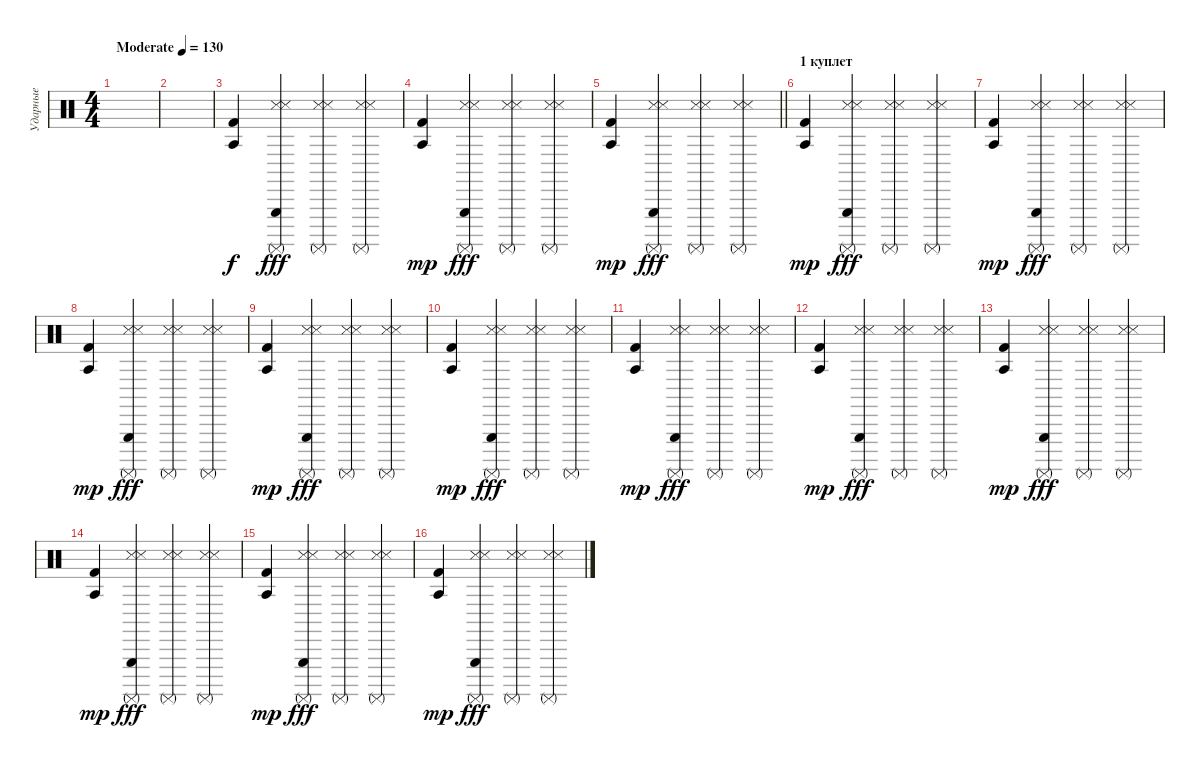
\track ("Ударные" "Ударные") {instrument percussion}
\staff {score}
\articulation defaults
\ts (4 4)
\tempo (130 "Moderate")
\clef neutral
\ks c
|
|
("Kick (hit) 2" "Agogo tow (hit)").4 ("Metronome (hit)" "Snare (side stick) 3" "Surdo (mute)" "Triangle (hit)").4{dy fff} ("Metronome (hit)" "Snare (side stick) 3" "Surdo (mute)").4 ("Metronome (hit)" "Snare (side stick) 3" "Surdo (mute)").4 |
("Kick (hit) 2" "Agogo tow (hit)").4{dy mp} ("Metronome (hit)" "Snare (side stick) 3" "Surdo (mute)" "Triangle (hit)").4{dy fff} ("Metronome (hit)" "Snare (side stick) 3" "Surdo (mute)").4 ("Metronome (hit)" "Snare (side stick) 3" "Surdo (mute)").4 |
\barLineRight lightlight
("Kick (hit) 2" "Agogo tow (hit)").4{dy mp} ("Metronome (hit)" "Snare (side stick) 3" "Surdo (mute)" "Triangle (hit)").4{dy fff} ("Metronome (hit)" "Snare (side stick) 3" "Surdo (mute)").4 ("Metronome (hit)" "Snare (side stick) 3" "Surdo (mute)").4 |
\section ("" "1 куплет")
("Kick (hit) 2" "Agogo tow (hit)").4{dy mp} ("Metronome (hit)" "Snare (side stick) 3" "Surdo (mute)" "Triangle (hit)").4{dy fff} ("Metronome (hit)" "Snare (side stick) 3" "Surdo (mute)").4 ("Metronome (hit)" "Snare (side stick) 3" "Surdo (mute)").4 |
("Kick (hit) 2" "Agogo tow (hit)").4{dy mp} ("Metronome (hit)" "Snare (side stick) 3" "Surdo (mute)" "Triangle (hit)").4{dy fff} ("Metronome (hit)" "Snare (side stick) 3" "Surdo (mute)").4 ("Metronome (hit)" "Snare (side stick) 3" "Surdo (mute)").4 |
("Kick (hit) 2" "Agogo tow (hit)").4{dy mp} ("Metronome (hit)" "Snare (side stick) 3" "Surdo (mute)" "Triangle (hit)").4{dy fff} ("Metronome (hit)" "Snare (side stick) 3" "Surdo (mute)").4 ("Metronome (hit)" "Snare (side stick) 3" "Surdo (mute)").4 |
("Kick (hit) 2" "Agogo tow (hit)").4{dy mp} ("Metronome (hit)" "Snare (side stick) 3" "Surdo (mute)" "Triangle (hit)").4{dy fff} ("Metronome (hit)" "Snare (side stick) 3" "Surdo (mute)").4 ("Metronome (hit)" "Snare (side stick) 3" "Surdo (mute)").4 |
("Kick (hit) 2" "Agogo tow (hit)").4{dy mp} ("Metronome (hit)" "Snare (side stick) 3" "Surdo (mute)" "Triangle (hit)").4{dy fff} ("Metronome (hit)" "Snare (side stick) 3" "Surdo (mute)").4 ("Metronome (hit)" "Snare (side stick) 3" "Surdo (mute)").4 |
("Kick (hit) 2" "Agogo tow (hit)").4{dy mp} ("Metronome (hit)" "Snare (side stick) 3" "Surdo (mute)" "Triangle (hit)").4{dy fff} ("Metronome (hit)" "Snare (side stick) 3" "Surdo (mute)").4 ("Metronome (hit)" "Snare (side stick) 3" "Surdo (mute)").4 |
("Kick (hit) 2" "Agogo tow (hit)").4{dy mp} ("Metronome (hit)" "Snare (side stick) 3" "Surdo (mute)" "Triangle (hit)").4{dy fff} ("Metronome (hit)" "Snare (side stick) 3" "Surdo (mute)").4 ("Metronome (hit)" "Snare (side stick) 3" "Surdo (mute)").4 |
("Kick (hit) 2" "Agogo tow (hit)").4{dy mp} ("Metronome (hit)" "Snare (side stick) 3" "Surdo (mute)" "Triangle (hit)").4{dy fff} ("Metronome (hit)" "Snare (side stick) 3" "Surdo (mute)").4 ("Metronome (hit)" "Snare (side stick) 3" "Surdo (mute)").4 |
("Kick (hit) 2" "Agogo tow (hit)").4{dy mp} ("Metronome (hit)" "Snare (side stick) 3" "Surdo (mute)" "Triangle (hit)").4{dy fff} ("Metronome (hit)" "Snare (side stick) 3" "Surdo (mute)").4 ("Metronome (hit)" "Snare (side stick) 3" "Surdo (mute)").4 |
("Kick (hit) 2" "Agogo tow (hit)").4{dy mp} ("Metronome (hit)" "Snare (side stick) 3" "Surdo (mute)" "Triangle (hit)").4{dy fff} ("Metronome (hit)" "Snare (side stick) 3" "Surdo (mute)").4 ("Metronome (hit)" "Snare (side stick) 3" "Surdo (mute)").4 |
("Kick (hit) 2" "Agogo tow (hit)").4{dy mp} ("Metronome (hit)" "Snare (side stick) 3" "Surdo (mute)" "Triangle (hit)").4{dy fff} ("Metronome (hit)" "Snare (side stick) 3" "Surdo (mute)").4 ("Metronome (hit)" "Snare (side stick) 3" "Surdo (mute)").4
